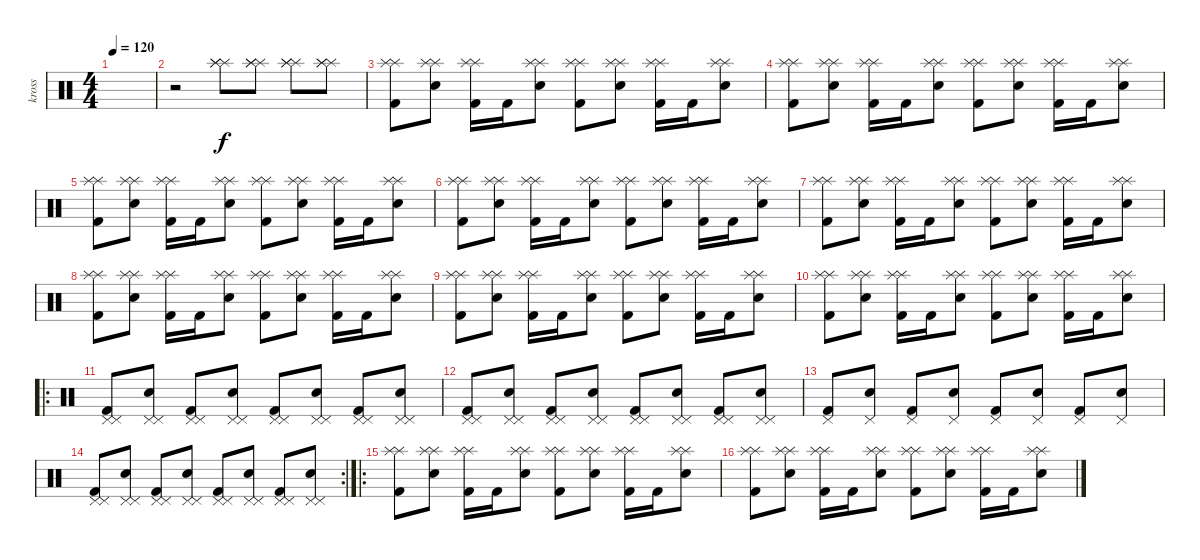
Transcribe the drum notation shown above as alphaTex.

\track ("kross" "kross") {instrument percussion}
\staff {score}
\articulation defaults
\ts (4 4)
\tempo 120
\clef neutral
\ks c
|
r.2 ("Splash (hit)" "Splash (hit)" "Splash (hit)").8 ("Splash (hit)" "Splash (hit)" "Splash (hit)").8 ("Splash (hit)" "Splash (hit)" "Splash (hit)").8 ("Splash (hit)" "Splash (hit)" "Splash (hit)").8 |
("Splash (hit)" "Splash (hit)" "Kick (hit) 2").8 ("Splash (hit)" "Splash (hit)" "Electric Snare (hit)").8 ("Splash (hit)" "Splash (hit)" "Kick (hit) 2").16 "Kick (hit) 2".16 ("Splash (hit)" "Splash (hit)" "Electric Snare (hit)").8 ("Splash (hit)" "Splash (hit)" "Kick (hit) 2").8 ("Splash (hit)" "Splash (hit)" "Electric Snare (hit)").8 ("Splash (hit)" "Splash (hit)" "Kick (hit) 2").16 "Kick (hit) 2".16 ("Splash (hit)" "Splash (hit)" "Electric Snare (hit)").8 |
("Splash (hit)" "Splash (hit)" "Kick (hit) 2").8 ("Splash (hit)" "Splash (hit)" "Electric Snare (hit)").8 ("Splash (hit)" "Splash (hit)" "Kick (hit) 2").16 "Kick (hit) 2".16 ("Splash (hit)" "Splash (hit)" "Electric Snare (hit)").8 ("Splash (hit)" "Splash (hit)" "Kick (hit) 2").8 ("Splash (hit)" "Splash (hit)" "Electric Snare (hit)").8 ("Splash (hit)" "Splash (hit)" "Kick (hit) 2").16 "Kick (hit) 2".16 ("Splash (hit)" "Splash (hit)" "Electric Snare (hit)").8 |
("Splash (hit)" "Splash (hit)" "Kick (hit) 2").8 ("Splash (hit)" "Splash (hit)" "Electric Snare (hit)").8 ("Splash (hit)" "Splash (hit)" "Kick (hit) 2").16 "Kick (hit) 2".16 ("Splash (hit)" "Splash (hit)" "Electric Snare (hit)").8 ("Splash (hit)" "Splash (hit)" "Kick (hit) 2").8 ("Splash (hit)" "Splash (hit)" "Electric Snare (hit)").8 ("Splash (hit)" "Splash (hit)" "Kick (hit) 2").16 "Kick (hit) 2".16 ("Splash (hit)" "Splash (hit)" "Electric Snare (hit)").8 |
("Splash (hit)" "Splash (hit)" "Kick (hit) 2").8 ("Splash (hit)" "Splash (hit)" "Electric Snare (hit)").8 ("Splash (hit)" "Splash (hit)" "Kick (hit) 2").16 "Kick (hit) 2".16 ("Splash (hit)" "Splash (hit)" "Electric Snare (hit)").8 ("Splash (hit)" "Splash (hit)" "Kick (hit) 2").8 ("Splash (hit)" "Splash (hit)" "Electric Snare (hit)").8 ("Splash (hit)" "Splash (hit)" "Kick (hit) 2").16 "Kick (hit) 2".16 ("Splash (hit)" "Splash (hit)" "Electric Snare (hit)").8 |
("Splash (hit)" "Splash (hit)" "Kick (hit) 2").8 ("Splash (hit)" "Splash (hit)" "Electric Snare (hit)").8 ("Splash (hit)" "Splash (hit)" "Kick (hit) 2").16 "Kick (hit) 2".16 ("Splash (hit)" "Splash (hit)" "Electric Snare (hit)").8 ("Splash (hit)" "Splash (hit)" "Kick (hit) 2").8 ("Splash (hit)" "Splash (hit)" "Electric Snare (hit)").8 ("Splash (hit)" "Splash (hit)" "Kick (hit) 2").16 "Kick (hit) 2".16 ("Splash (hit)" "Splash (hit)" "Electric Snare (hit)").8 |
("Splash (hit)" "Splash (hit)" "Kick (hit) 2").8 ("Splash (hit)" "Splash (hit)" "Electric Snare (hit)").8 ("Splash (hit)" "Splash (hit)" "Kick (hit) 2").16 "Kick (hit) 2".16 ("Splash (hit)" "Splash (hit)" "Electric Snare (hit)").8 ("Splash (hit)" "Splash (hit)" "Kick (hit) 2").8 ("Splash (hit)" "Splash (hit)" "Electric Snare (hit)").8 ("Splash (hit)" "Splash (hit)" "Kick (hit) 2").16 "Kick (hit) 2".16 ("Splash (hit)" "Splash (hit)" "Electric Snare (hit)").8 |
("Splash (hit)" "Splash (hit)" "Kick (hit) 2").8 ("Splash (hit)" "Splash (hit)" "Electric Snare (hit)").8 ("Splash (hit)" "Splash (hit)" "Kick (hit) 2").16 "Kick (hit) 2".16 ("Splash (hit)" "Splash (hit)" "Electric Snare (hit)").8 ("Splash (hit)" "Splash (hit)" "Kick (hit) 2").8 ("Splash (hit)" "Splash (hit)" "Electric Snare (hit)").8 ("Splash (hit)" "Splash (hit)" "Kick (hit) 2").16 "Kick (hit) 2".16 ("Splash (hit)" "Splash (hit)" "Electric Snare (hit)").8 |
("Splash (hit)" "Splash (hit)" "Kick (hit) 2").8 ("Splash (hit)" "Splash (hit)" "Electric Snare (hit)").8 ("Splash (hit)" "Splash (hit)" "Kick (hit) 2").16 "Kick (hit) 2".16 ("Splash (hit)" "Splash (hit)" "Electric Snare (hit)").8 ("Splash (hit)" "Splash (hit)" "Kick (hit) 2").8 ("Splash (hit)" "Splash (hit)" "Electric Snare (hit)").8 ("Splash (hit)" "Splash (hit)" "Kick (hit) 2").16 "Kick (hit) 2".16 ("Splash (hit)" "Splash (hit)" "Electric Snare (hit)").8 |
\ro
("Pedal Hi-Hat (hit)" "Pedal Hi-Hat (hit)" "Kick (hit) 2").8 ("Pedal Hi-Hat (hit)" "Pedal Hi-Hat (hit)" "Electric Snare (hit)").8 ("Pedal Hi-Hat (hit)" "Pedal Hi-Hat (hit)" "Kick (hit) 2").8 ("Pedal Hi-Hat (hit)" "Pedal Hi-Hat (hit)" "Electric Snare (hit)").8 ("Pedal Hi-Hat (hit)" "Pedal Hi-Hat (hit)" "Kick (hit) 2").8 ("Pedal Hi-Hat (hit)" "Pedal Hi-Hat (hit)" "Electric Snare (hit)").8 ("Pedal Hi-Hat (hit)" "Pedal Hi-Hat (hit)" "Kick (hit) 2").8 ("Pedal Hi-Hat (hit)" "Pedal Hi-Hat (hit)" "Electric Snare (hit)").8 |
("Pedal Hi-Hat (hit)" "Pedal Hi-Hat (hit)" "Kick (hit) 2").8 ("Pedal Hi-Hat (hit)" "Pedal Hi-Hat (hit)" "Electric Snare (hit)").8 ("Pedal Hi-Hat (hit)" "Pedal Hi-Hat (hit)" "Kick (hit) 2").8 ("Pedal Hi-Hat (hit)" "Pedal Hi-Hat (hit)" "Electric Snare (hit)").8 ("Pedal Hi-Hat (hit)" "Pedal Hi-Hat (hit)" "Kick (hit) 2").8 ("Pedal Hi-Hat (hit)" "Pedal Hi-Hat (hit)" "Electric Snare (hit)").8 ("Pedal Hi-Hat (hit)" "Pedal Hi-Hat (hit)" "Kick (hit) 2").8 ("Pedal Hi-Hat (hit)" "Pedal Hi-Hat (hit)" "Electric Snare (hit)").8 |
("Pedal Hi-Hat (hit)" "Kick (hit) 2").8 ("Pedal Hi-Hat (hit)" "Electric Snare (hit)").8 ("Pedal Hi-Hat (hit)" "Kick (hit) 2").8 ("Pedal Hi-Hat (hit)" "Electric Snare (hit)").8 ("Pedal Hi-Hat (hit)" "Kick (hit) 2").8 ("Pedal Hi-Hat (hit)" "Electric Snare (hit)").8 ("Pedal Hi-Hat (hit)" "Kick (hit) 2").8 ("Pedal Hi-Hat (hit)" "Electric Snare (hit)").8 |
\rc 2
("Pedal Hi-Hat (hit)" "Pedal Hi-Hat (hit)" "Kick (hit) 2").8 ("Pedal Hi-Hat (hit)" "Pedal Hi-Hat (hit)" "Electric Snare (hit)").8 ("Pedal Hi-Hat (hit)" "Pedal Hi-Hat (hit)" "Kick (hit) 2").8 ("Pedal Hi-Hat (hit)" "Pedal Hi-Hat (hit)" "Electric Snare (hit)").8 ("Pedal Hi-Hat (hit)" "Pedal Hi-Hat (hit)" "Kick (hit) 2").8 ("Pedal Hi-Hat (hit)" "Pedal Hi-Hat (hit)" "Electric Snare (hit)").8 ("Pedal Hi-Hat (hit)" "Pedal Hi-Hat (hit)" "Kick (hit) 2").8 ("Pedal Hi-Hat (hit)" "Pedal Hi-Hat (hit)" "Electric Snare (hit)").8 |
\ro
("Splash (hit)" "Splash (hit)" "Kick (hit) 2").8 ("Splash (hit)" "Splash (hit)" "Electric Snare (hit)").8 ("Splash (hit)" "Splash (hit)" "Kick (hit) 2").16 "Kick (hit) 2".16 ("Splash (hit)" "Splash (hit)" "Electric Snare (hit)").8 ("Splash (hit)" "Splash (hit)" "Kick (hit) 2").8 ("Splash (hit)" "Splash (hit)" "Electric Snare (hit)").8 ("Splash (hit)" "Splash (hit)" "Kick (hit) 2").16 "Kick (hit) 2".16 ("Splash (hit)" "Splash (hit)" "Electric Snare (hit)").8 |
("Splash (hit)" "Splash (hit)" "Kick (hit) 2").8 ("Splash (hit)" "Splash (hit)" "Electric Snare (hit)").8 ("Splash (hit)" "Splash (hit)" "Kick (hit) 2").16 "Kick (hit) 2".16 ("Splash (hit)" "Splash (hit)" "Electric Snare (hit)").8 ("Splash (hit)" "Splash (hit)" "Kick (hit) 2").8 ("Splash (hit)" "Splash (hit)" "Electric Snare (hit)").8 ("Splash (hit)" "Splash (hit)" "Kick (hit) 2").16 "Kick (hit) 2".16 ("Splash (hit)" "Splash (hit)" "Electric Snare (hit)").8
